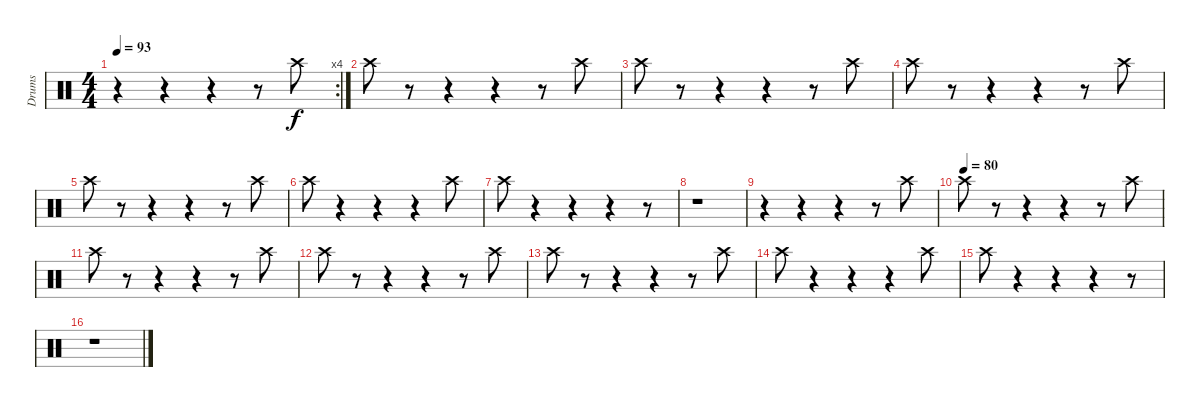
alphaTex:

\track ("Drums" "Drums") {instrument percussion}
\staff {score}
\articulation defaults
\rc 4
\ts (4 4)
\tempo 93
\clef neutral
\ks c
r.4{dy f} r.4 r.4 r.8 "Crash high (hit)".8 |
"Crash high (hit)".8 r.8 r.4 r.4 r.8 "Crash high (hit)".8 |
"Crash high (hit)".8 r.8 r.4 r.4 r.8 "Crash high (hit)".8 |
"Crash high (hit)".8 r.8 r.4 r.4 r.8 "Crash high (hit)".8 |
"Crash high (hit)".8 r.8 r.4 r.4 r.8 "Crash high (hit)".8 |
"Crash high (hit)".8 r.4 r.4 r.4 "Crash high (hit)".8 |
"Crash high (hit)".8 r.4 r.4 r.4 r.8 |
r.1 |
r.4 r.4 r.4 r.8 "Crash high (hit)".8 |
\tempo (80)
"Crash high (hit)".8 r.8 r.4 r.4 r.8 "Crash high (hit)".8 |
"Crash high (hit)".8 r.8 r.4 r.4 r.8 "Crash high (hit)".8 |
"Crash high (hit)".8 r.8 r.4 r.4 r.8 "Crash high (hit)".8 |
"Crash high (hit)".8 r.8 r.4 r.4 r.8 "Crash high (hit)".8 |
"Crash high (hit)".8 r.4 r.4 r.4 "Crash high (hit)".8 |
"Crash high (hit)".8 r.4 r.4 r.4 r.8 |
r.1
